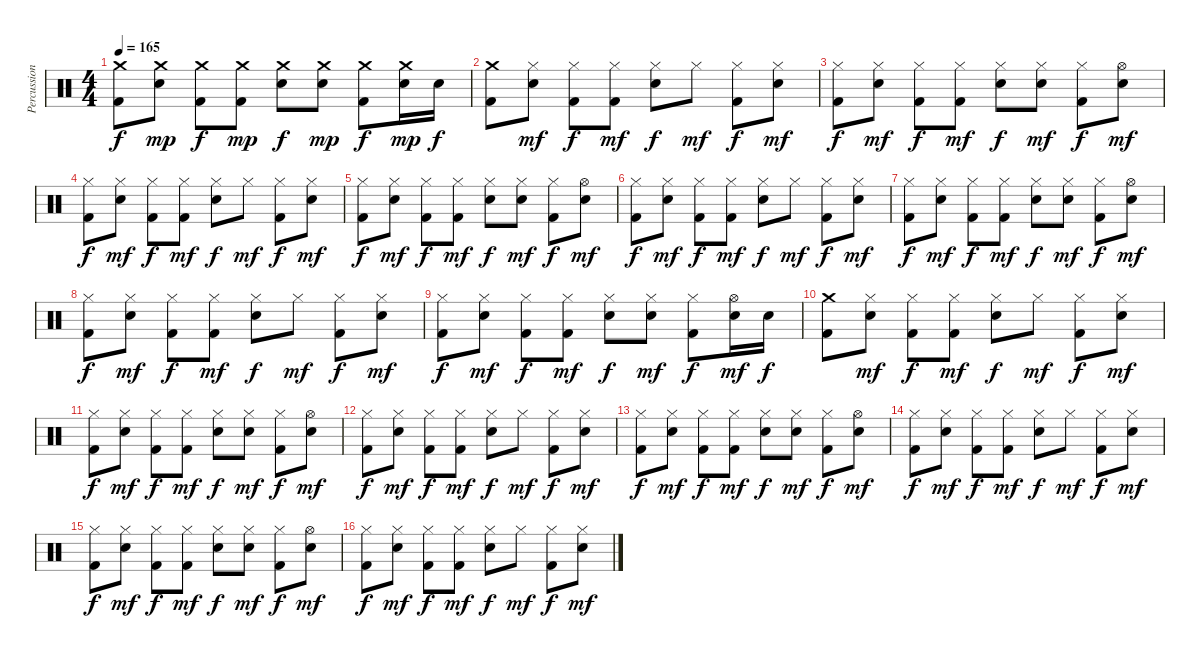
\track ("Percussion" "Percussion") {instrument percussion}
\staff {score}
\articulation defaults
\ts (4 4)
\tempo 165
\clef neutral
\ks c
("Crash medium (hit)" "Kick (hit) 2").8{dy f} ("Crash medium (hit)" "Snare (hit) 2").8{dy mp} ("Crash medium (hit)" "Kick (hit) 2").8{dy f} ("Crash medium (hit)" "Kick (hit) 2").8{dy mp} ("Crash medium (hit)" "Snare (hit) 2").8{dy f} ("Crash medium (hit)" "Snare (hit) 2").8{dy mp} ("Crash medium (hit)" "Kick (hit) 2").8{dy f} ("Crash medium (hit)" "Snare (hit) 2").16{dy mp} "Snare (hit) 2".16{dy f} |
("Crash medium (hit)" "Kick (hit) 2").8 ("Hi-Hat (closed)" "Snare (hit) 2").8{dy mf} ("Hi-Hat (closed)" "Kick (hit) 2").8{dy f} ("Hi-Hat (closed)" "Kick (hit) 2").8{dy mf} ("Hi-Hat (closed)" "Snare (hit) 2").8{dy f} "Hi-Hat (closed)".8{dy mf} ("Hi-Hat (closed)" "Kick (hit) 2").8{dy f} ("Hi-Hat (closed)" "Snare (hit) 2").8{dy mf} |
("Hi-Hat (closed)" "Kick (hit) 2").8{dy f} ("Hi-Hat (closed)" "Snare (hit) 2").8{dy mf} ("Hi-Hat (closed)" "Kick (hit) 2").8{dy f} ("Hi-Hat (closed)" "Kick (hit) 2").8{dy mf} ("Hi-Hat (closed)" "Snare (hit) 2").8{dy f} ("Hi-Hat (closed)" "Snare (hit) 2").8{dy mf} ("Hi-Hat (closed)" "Kick (hit) 2").8{dy f} ("Hi-Hat (open)" "Snare (hit) 2").8{dy mf} |
("Hi-Hat (closed)" "Kick (hit) 2").8{dy f} ("Hi-Hat (closed)" "Snare (hit) 2").8{dy mf} ("Hi-Hat (closed)" "Kick (hit) 2").8{dy f} ("Hi-Hat (closed)" "Kick (hit) 2").8{dy mf} ("Hi-Hat (closed)" "Snare (hit) 2").8{dy f} "Hi-Hat (closed)".8{dy mf} ("Hi-Hat (closed)" "Kick (hit) 2").8{dy f} ("Hi-Hat (closed)" "Snare (hit) 2").8{dy mf} |
("Hi-Hat (closed)" "Kick (hit) 2").8{dy f} ("Hi-Hat (closed)" "Snare (hit) 2").8{dy mf} ("Hi-Hat (closed)" "Kick (hit) 2").8{dy f} ("Hi-Hat (closed)" "Kick (hit) 2").8{dy mf} ("Hi-Hat (closed)" "Snare (hit) 2").8{dy f} ("Hi-Hat (closed)" "Snare (hit) 2").8{dy mf} ("Hi-Hat (closed)" "Kick (hit) 2").8{dy f} ("Hi-Hat (open)" "Snare (hit) 2").8{dy mf} |
("Hi-Hat (closed)" "Kick (hit) 2").8{dy f} ("Hi-Hat (closed)" "Snare (hit) 2").8{dy mf} ("Hi-Hat (closed)" "Kick (hit) 2").8{dy f} ("Hi-Hat (closed)" "Kick (hit) 2").8{dy mf} ("Hi-Hat (closed)" "Snare (hit) 2").8{dy f} "Hi-Hat (closed)".8{dy mf} ("Hi-Hat (closed)" "Kick (hit) 2").8{dy f} ("Hi-Hat (closed)" "Snare (hit) 2").8{dy mf} |
("Hi-Hat (closed)" "Kick (hit) 2").8{dy f} ("Hi-Hat (closed)" "Snare (hit) 2").8{dy mf} ("Hi-Hat (closed)" "Kick (hit) 2").8{dy f} ("Hi-Hat (closed)" "Kick (hit) 2").8{dy mf} ("Hi-Hat (closed)" "Snare (hit) 2").8{dy f} ("Hi-Hat (closed)" "Snare (hit) 2").8{dy mf} ("Hi-Hat (closed)" "Kick (hit) 2").8{dy f} ("Hi-Hat (open)" "Snare (hit) 2").8{dy mf} |
("Hi-Hat (closed)" "Kick (hit) 2").8{dy f} ("Hi-Hat (closed)" "Snare (hit) 2").8{dy mf} ("Hi-Hat (closed)" "Kick (hit) 2").8{dy f} ("Hi-Hat (closed)" "Kick (hit) 2").8{dy mf} ("Hi-Hat (closed)" "Snare (hit) 2").8{dy f} "Hi-Hat (closed)".8{dy mf} ("Hi-Hat (closed)" "Kick (hit) 2").8{dy f} ("Hi-Hat (closed)" "Snare (hit) 2").8{dy mf} |
("Hi-Hat (closed)" "Kick (hit) 2").8{dy f} ("Hi-Hat (closed)" "Snare (hit) 2").8{dy mf} ("Hi-Hat (closed)" "Kick (hit) 2").8{dy f} ("Hi-Hat (closed)" "Kick (hit) 2").8{dy mf} ("Hi-Hat (closed)" "Snare (hit) 2").8{dy f} ("Hi-Hat (closed)" "Snare (hit) 2").8{dy mf} ("Hi-Hat (closed)" "Kick (hit) 2").8{dy f} ("Hi-Hat (open)" "Snare (hit) 2").16{dy mf} "Snare (hit) 2".16{dy f} |
("Crash medium (hit)" "Kick (hit) 2").8 ("Hi-Hat (closed)" "Snare (hit) 2").8{dy mf} ("Hi-Hat (closed)" "Kick (hit) 2").8{dy f} ("Hi-Hat (closed)" "Kick (hit) 2").8{dy mf} ("Hi-Hat (closed)" "Snare (hit) 2").8{dy f} "Hi-Hat (closed)".8{dy mf} ("Hi-Hat (closed)" "Kick (hit) 2").8{dy f} ("Hi-Hat (closed)" "Snare (hit) 2").8{dy mf} |
("Hi-Hat (closed)" "Kick (hit) 2").8{dy f} ("Hi-Hat (closed)" "Snare (hit) 2").8{dy mf} ("Hi-Hat (closed)" "Kick (hit) 2").8{dy f} ("Hi-Hat (closed)" "Kick (hit) 2").8{dy mf} ("Hi-Hat (closed)" "Snare (hit) 2").8{dy f} ("Hi-Hat (closed)" "Snare (hit) 2").8{dy mf} ("Hi-Hat (closed)" "Kick (hit) 2").8{dy f} ("Hi-Hat (open)" "Snare (hit) 2").8{dy mf} |
("Hi-Hat (closed)" "Kick (hit) 2").8{dy f} ("Hi-Hat (closed)" "Snare (hit) 2").8{dy mf} ("Hi-Hat (closed)" "Kick (hit) 2").8{dy f} ("Hi-Hat (closed)" "Kick (hit) 2").8{dy mf} ("Hi-Hat (closed)" "Snare (hit) 2").8{dy f} "Hi-Hat (closed)".8{dy mf} ("Hi-Hat (closed)" "Kick (hit) 2").8{dy f} ("Hi-Hat (closed)" "Snare (hit) 2").8{dy mf} |
("Hi-Hat (closed)" "Kick (hit) 2").8{dy f} ("Hi-Hat (closed)" "Snare (hit) 2").8{dy mf} ("Hi-Hat (closed)" "Kick (hit) 2").8{dy f} ("Hi-Hat (closed)" "Kick (hit) 2").8{dy mf} ("Hi-Hat (closed)" "Snare (hit) 2").8{dy f} ("Hi-Hat (closed)" "Snare (hit) 2").8{dy mf} ("Hi-Hat (closed)" "Kick (hit) 2").8{dy f} ("Hi-Hat (open)" "Snare (hit) 2").8{dy mf} |
("Hi-Hat (closed)" "Kick (hit) 2").8{dy f} ("Hi-Hat (closed)" "Snare (hit) 2").8{dy mf} ("Hi-Hat (closed)" "Kick (hit) 2").8{dy f} ("Hi-Hat (closed)" "Kick (hit) 2").8{dy mf} ("Hi-Hat (closed)" "Snare (hit) 2").8{dy f} "Hi-Hat (closed)".8{dy mf} ("Hi-Hat (closed)" "Kick (hit) 2").8{dy f} ("Hi-Hat (closed)" "Snare (hit) 2").8{dy mf} |
("Hi-Hat (closed)" "Kick (hit) 2").8{dy f} ("Hi-Hat (closed)" "Snare (hit) 2").8{dy mf} ("Hi-Hat (closed)" "Kick (hit) 2").8{dy f} ("Hi-Hat (closed)" "Kick (hit) 2").8{dy mf} ("Hi-Hat (closed)" "Snare (hit) 2").8{dy f} ("Hi-Hat (closed)" "Snare (hit) 2").8{dy mf} ("Hi-Hat (closed)" "Kick (hit) 2").8{dy f} ("Hi-Hat (open)" "Snare (hit) 2").8{dy mf} |
("Hi-Hat (closed)" "Kick (hit) 2").8{dy f} ("Hi-Hat (closed)" "Snare (hit) 2").8{dy mf} ("Hi-Hat (closed)" "Kick (hit) 2").8{dy f} ("Hi-Hat (closed)" "Kick (hit) 2").8{dy mf} ("Hi-Hat (closed)" "Snare (hit) 2").8{dy f} "Hi-Hat (closed)".8{dy mf} ("Hi-Hat (closed)" "Kick (hit) 2").8{dy f} ("Hi-Hat (closed)" "Snare (hit) 2").8{dy mf}
